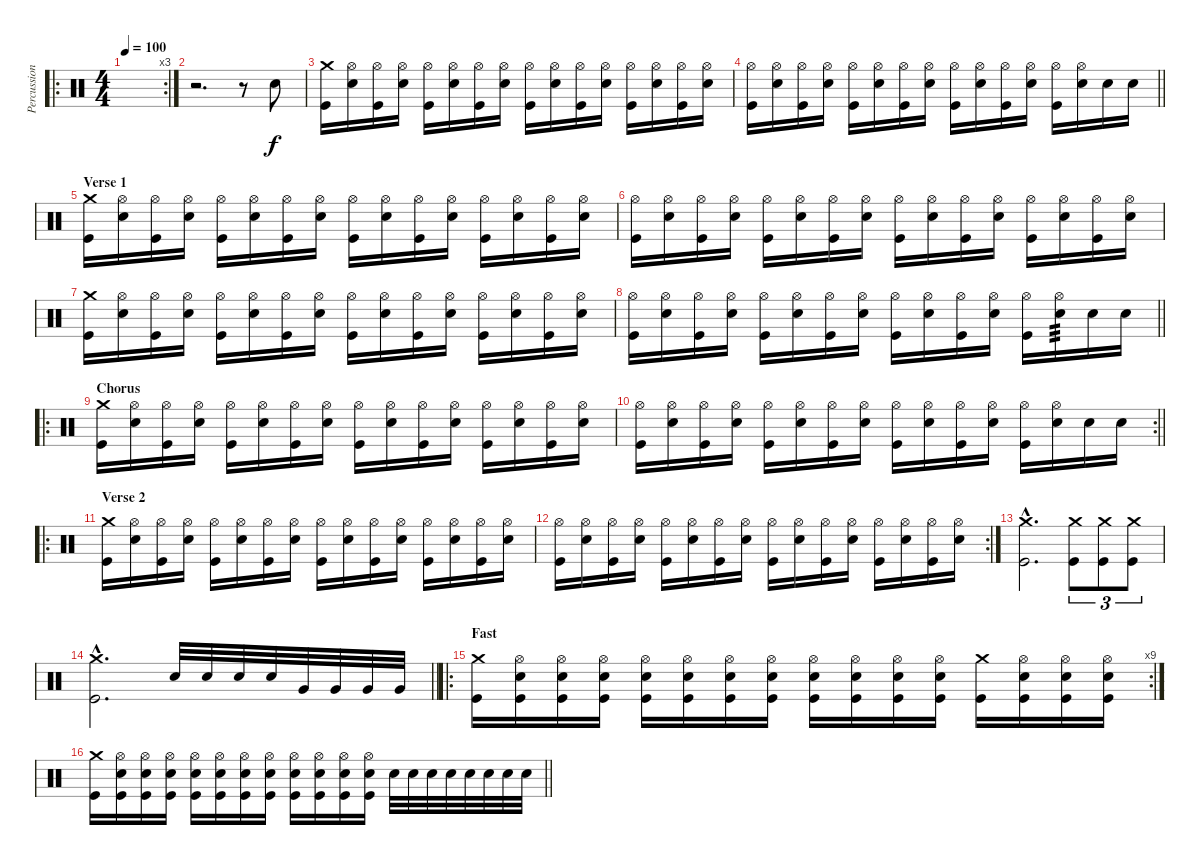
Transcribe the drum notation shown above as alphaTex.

\track ("Percussion" "Percussion") {instrument percussion}
\staff {score}
\articulation defaults
\ro
\rc 3
\ts (4 4)
\tempo 100
\clef neutral
\ks c
|
r.2{d} r.8 "Snare (hit) 2".8 |
("Kick (hit)" "Crash medium (hit)").16 ("Snare (hit) 2" "Hi-Hat (open)").16 ("Kick (hit)" "Hi-Hat (open)").16 ("Snare (hit) 2" "Hi-Hat (open)").16 ("Kick (hit)" "Hi-Hat (open)").16 ("Snare (hit) 2" "Hi-Hat (open)").16 ("Kick (hit)" "Hi-Hat (open)").16 ("Snare (hit) 2" "Hi-Hat (open)").16 ("Kick (hit)" "Hi-Hat (open)").16 ("Snare (hit) 2" "Hi-Hat (open)").16 ("Kick (hit)" "Hi-Hat (open)").16 ("Snare (hit) 2" "Hi-Hat (open)").16 ("Kick (hit)" "Hi-Hat (open)").16 ("Snare (hit) 2" "Hi-Hat (open)").16 ("Kick (hit)" "Hi-Hat (open)").16 ("Snare (hit) 2" "Hi-Hat (open)").16 |
\barLineRight lightlight
("Kick (hit)" "Hi-Hat (open)").16 ("Snare (hit) 2" "Hi-Hat (open)").16 ("Kick (hit)" "Hi-Hat (open)").16 ("Snare (hit) 2" "Hi-Hat (open)").16 ("Kick (hit)" "Hi-Hat (open)").16 ("Snare (hit) 2" "Hi-Hat (open)").16 ("Kick (hit)" "Hi-Hat (open)").16 ("Snare (hit) 2" "Hi-Hat (open)").16 ("Kick (hit)" "Hi-Hat (open)").16 ("Snare (hit) 2" "Hi-Hat (open)").16 ("Kick (hit)" "Hi-Hat (open)").16 ("Snare (hit) 2" "Hi-Hat (open)").16 ("Kick (hit)" "Hi-Hat (open)").16 ("Snare (hit) 2" "Hi-Hat (open)").16 "Snare (hit) 2".16 "Snare (hit) 2".16 |
\section ("" "Verse 1")
("Kick (hit)" "Crash medium (hit)").16 ("Snare (hit) 2" "Hi-Hat (open)").16 ("Kick (hit)" "Hi-Hat (open)").16 ("Snare (hit) 2" "Hi-Hat (open)").16 ("Kick (hit)" "Hi-Hat (open)").16 ("Snare (hit) 2" "Hi-Hat (open)").16 ("Kick (hit)" "Hi-Hat (open)").16 ("Snare (hit) 2" "Hi-Hat (open)").16 ("Kick (hit)" "Hi-Hat (open)").16 ("Snare (hit) 2" "Hi-Hat (open)").16 ("Kick (hit)" "Hi-Hat (open)").16 ("Snare (hit) 2" "Hi-Hat (open)").16 ("Kick (hit)" "Hi-Hat (open)").16 ("Snare (hit) 2" "Hi-Hat (open)").16 ("Kick (hit)" "Hi-Hat (open)").16 ("Snare (hit) 2" "Hi-Hat (open)").16 |
("Kick (hit)" "Hi-Hat (open)").16 ("Snare (hit) 2" "Hi-Hat (open)").16 ("Kick (hit)" "Hi-Hat (open)").16 ("Snare (hit) 2" "Hi-Hat (open)").16 ("Kick (hit)" "Hi-Hat (open)").16 ("Snare (hit) 2" "Hi-Hat (open)").16 ("Kick (hit)" "Hi-Hat (open)").16 ("Snare (hit) 2" "Hi-Hat (open)").16 ("Kick (hit)" "Hi-Hat (open)").16 ("Snare (hit) 2" "Hi-Hat (open)").16 ("Kick (hit)" "Hi-Hat (open)").16 ("Snare (hit) 2" "Hi-Hat (open)").16 ("Kick (hit)" "Hi-Hat (open)").16 ("Snare (hit) 2" "Hi-Hat (open)").16 ("Kick (hit)" "Hi-Hat (open)").16 ("Snare (hit) 2" "Hi-Hat (open)").16 |
("Kick (hit)" "Crash medium (hit)").16 ("Snare (hit) 2" "Hi-Hat (open)").16 ("Kick (hit)" "Hi-Hat (open)").16 ("Snare (hit) 2" "Hi-Hat (open)").16 ("Kick (hit)" "Hi-Hat (open)").16 ("Snare (hit) 2" "Hi-Hat (open)").16 ("Kick (hit)" "Hi-Hat (open)").16 ("Snare (hit) 2" "Hi-Hat (open)").16 ("Kick (hit)" "Hi-Hat (open)").16 ("Snare (hit) 2" "Hi-Hat (open)").16 ("Kick (hit)" "Hi-Hat (open)").16 ("Snare (hit) 2" "Hi-Hat (open)").16 ("Kick (hit)" "Hi-Hat (open)").16 ("Snare (hit) 2" "Hi-Hat (open)").16 ("Kick (hit)" "Hi-Hat (open)").16 ("Snare (hit) 2" "Hi-Hat (open)").16 |
\barLineRight lightlight
("Kick (hit)" "Hi-Hat (open)").16 ("Snare (hit) 2" "Hi-Hat (open)").16 ("Kick (hit)" "Hi-Hat (open)").16 ("Snare (hit) 2" "Hi-Hat (open)").16 ("Kick (hit)" "Hi-Hat (open)").16 ("Snare (hit) 2" "Hi-Hat (open)").16 ("Kick (hit)" "Hi-Hat (open)").16 ("Snare (hit) 2" "Hi-Hat (open)").16 ("Kick (hit)" "Hi-Hat (open)").16 ("Snare (hit) 2" "Hi-Hat (open)").16 ("Kick (hit)" "Hi-Hat (open)").16 ("Snare (hit) 2" "Hi-Hat (open)").16 ("Kick (hit)" "Hi-Hat (open)").16 ("Snare (hit) 2" "Hi-Hat (open)").16{tp 3} "Snare (hit) 2".16 "Snare (hit) 2".16 |
\ro
\section ("" "Chorus")
("Kick (hit)" "Crash medium (hit)").16 ("Snare (hit) 2" "Hi-Hat (open)").16 ("Kick (hit)" "Hi-Hat (open)").16 ("Snare (hit) 2" "Hi-Hat (open)").16 ("Kick (hit)" "Hi-Hat (open)").16 ("Snare (hit) 2" "Hi-Hat (open)").16 ("Kick (hit)" "Hi-Hat (open)").16 ("Snare (hit) 2" "Hi-Hat (open)").16 ("Kick (hit)" "Hi-Hat (open)").16 ("Snare (hit) 2" "Hi-Hat (open)").16 ("Kick (hit)" "Hi-Hat (open)").16 ("Snare (hit) 2" "Hi-Hat (open)").16 ("Kick (hit)" "Hi-Hat (open)").16 ("Snare (hit) 2" "Hi-Hat (open)").16 ("Kick (hit)" "Hi-Hat (open)").16 ("Snare (hit) 2" "Hi-Hat (open)").16 |
\rc 2
\barLineRight lightlight
("Kick (hit)" "Hi-Hat (open)").16 ("Snare (hit) 2" "Hi-Hat (open)").16 ("Kick (hit)" "Hi-Hat (open)").16 ("Snare (hit) 2" "Hi-Hat (open)").16 ("Kick (hit)" "Hi-Hat (open)").16 ("Snare (hit) 2" "Hi-Hat (open)").16 ("Kick (hit)" "Hi-Hat (open)").16 ("Snare (hit) 2" "Hi-Hat (open)").16 ("Kick (hit)" "Hi-Hat (open)").16 ("Snare (hit) 2" "Hi-Hat (open)").16 ("Kick (hit)" "Hi-Hat (open)").16 ("Snare (hit) 2" "Hi-Hat (open)").16 ("Kick (hit)" "Hi-Hat (open)").16 ("Snare (hit) 2" "Hi-Hat (open)").16 "Snare (hit) 2".16 "Snare (hit) 2".16 |
\ro
\section ("" "Verse 2")
("Kick (hit)" "Crash medium (hit)").16 ("Snare (hit) 2" "Hi-Hat (open)").16 ("Kick (hit)" "Hi-Hat (open)").16 ("Snare (hit) 2" "Hi-Hat (open)").16 ("Kick (hit)" "Hi-Hat (open)").16 ("Snare (hit) 2" "Hi-Hat (open)").16 ("Kick (hit)" "Hi-Hat (open)").16 ("Snare (hit) 2" "Hi-Hat (open)").16 ("Kick (hit)" "Hi-Hat (open)").16 ("Snare (hit) 2" "Hi-Hat (open)").16 ("Kick (hit)" "Hi-Hat (open)").16 ("Snare (hit) 2" "Hi-Hat (open)").16 ("Kick (hit)" "Hi-Hat (open)").16 ("Snare (hit) 2" "Hi-Hat (open)").16 ("Kick (hit)" "Hi-Hat (open)").16 ("Snare (hit) 2" "Hi-Hat (open)").16 |
\rc 2
("Kick (hit)" "Hi-Hat (open)").16 ("Snare (hit) 2" "Hi-Hat (open)").16 ("Kick (hit)" "Hi-Hat (open)").16 ("Snare (hit) 2" "Hi-Hat (open)").16 ("Kick (hit)" "Hi-Hat (open)").16 ("Snare (hit) 2" "Hi-Hat (open)").16 ("Kick (hit)" "Hi-Hat (open)").16 ("Snare (hit) 2" "Hi-Hat (open)").16 ("Kick (hit)" "Hi-Hat (open)").16 ("Snare (hit) 2" "Hi-Hat (open)").16 ("Kick (hit)" "Hi-Hat (open)").16 ("Snare (hit) 2" "Hi-Hat (open)").16 ("Kick (hit)" "Hi-Hat (open)").16 ("Snare (hit) 2" "Hi-Hat (open)").16 ("Kick (hit)" "Hi-Hat (open)").16 ("Snare (hit) 2" "Hi-Hat (open)").16 |
("Kick (hit)"{hac} "Crash medium (hit)"{hac}).2{d} ("Kick (hit)" "Crash medium (hit)").8{tu (3 2)} ("Kick (hit)" "Crash medium (hit)").8{tu (3 2)} ("Kick (hit)" "Crash medium (hit)").8{tu (3 2)} |
\barLineRight lightlight
("Kick (hit)"{hac} "Crash medium (hit)"{hac}).2{d} "Snare (hit) 2".32 "Snare (hit) 2".32 "Snare (hit) 2".32 "Snare (hit) 2".32 "Very Low Tom (hit)".32 "Very Low Tom (hit)".32 "Very Low Tom (hit)".32 "Very Low Tom (hit)".32 |
\ro
\rc 9
\section ("" "Fast")
("Kick (hit)" "Crash medium (hit)").16 ("Kick (hit)" "Snare (hit) 2" "Hi-Hat (open)").16 ("Kick (hit)" "Snare (hit) 2" "Hi-Hat (open)").16 ("Kick (hit)" "Snare (hit) 2" "Hi-Hat (open)").16 ("Kick (hit)" "Snare (hit) 2" "Hi-Hat (open)").16 ("Kick (hit)" "Snare (hit) 2" "Hi-Hat (open)").16 ("Kick (hit)" "Snare (hit) 2" "Hi-Hat (open)").16 ("Kick (hit)" "Snare (hit) 2" "Hi-Hat (open)").16 ("Kick (hit)" "Snare (hit) 2" "Hi-Hat (open)").16 ("Kick (hit)" "Snare (hit) 2" "Hi-Hat (open)").16 ("Kick (hit)" "Snare (hit) 2" "Hi-Hat (open)").16 ("Kick (hit)" "Snare (hit) 2" "Hi-Hat (open)").16 ("Kick (hit)" "Crash medium (hit)").16 ("Kick (hit)" "Snare (hit) 2" "Hi-Hat (open)").16 ("Kick (hit)" "Snare (hit) 2" "Hi-Hat (open)").16 ("Kick (hit)" "Snare (hit) 2" "Hi-Hat (open)").16 |
\barLineRight lightlight
("Kick (hit)" "Crash medium (hit)").16 ("Kick (hit)" "Snare (hit) 2" "Hi-Hat (open)").16 ("Kick (hit)" "Snare (hit) 2" "Hi-Hat (open)").16 ("Kick (hit)" "Snare (hit) 2" "Hi-Hat (open)").16 ("Kick (hit)" "Snare (hit) 2" "Hi-Hat (open)").16 ("Kick (hit)" "Snare (hit) 2" "Hi-Hat (open)").16 ("Kick (hit)" "Snare (hit) 2" "Hi-Hat (open)").16 ("Kick (hit)" "Snare (hit) 2" "Hi-Hat (open)").16 ("Kick (hit)" "Snare (hit) 2" "Hi-Hat (open)").16 ("Kick (hit)" "Snare (hit) 2" "Hi-Hat (open)").16 ("Kick (hit)" "Snare (hit) 2" "Hi-Hat (open)").16 ("Kick (hit)" "Snare (hit) 2" "Hi-Hat (open)").16 "Snare (hit) 2".32 "Snare (hit) 2".32 "Snare (hit) 2".32 "Snare (hit) 2".32 "Snare (hit) 2".32 "Snare (hit) 2".32 "Snare (hit) 2".32 "Snare (hit) 2".32
